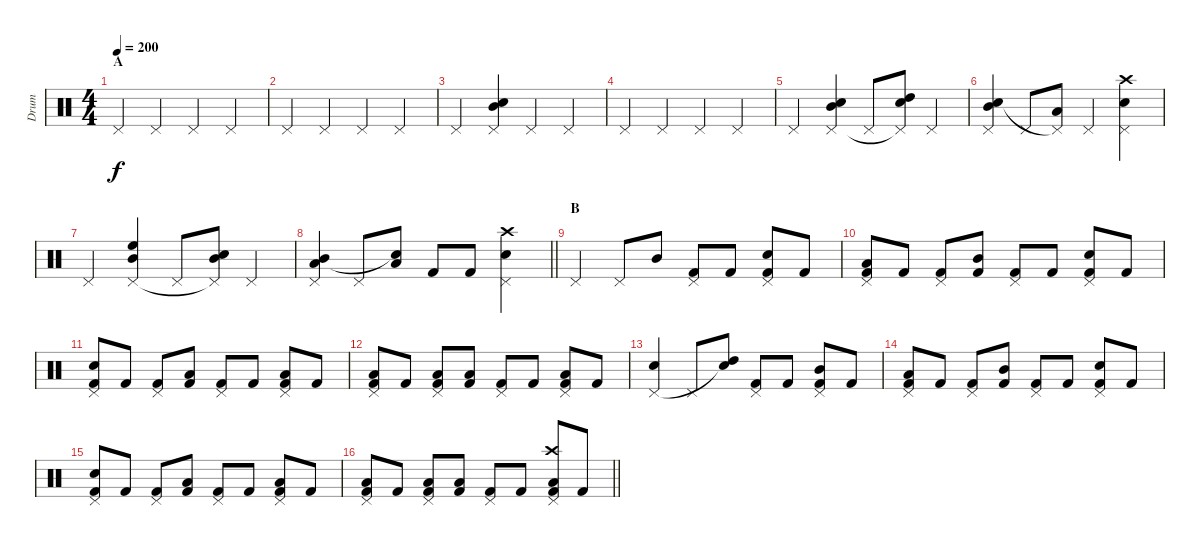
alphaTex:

\track ("Drum" "Drum") {instrument percussion}
\staff {score}
\articulation defaults
\ts (4 4)
\section ("" "A")
\tempo 200
\clef neutral
\ks c "Pedal Hi-Hat (hit)".4{dy f} "Pedal Hi-Hat (hit)".4 "Pedal Hi-Hat (hit)".4 "Pedal Hi-Hat (hit)".4
|
"Pedal Hi-Hat (hit)".4 "Pedal Hi-Hat (hit)".4 "Pedal Hi-Hat (hit)".4 "Pedal Hi-Hat (hit)".4 |
"Pedal Hi-Hat (hit)".4 ("Mid Tom (hit)" "Snare (hit) 2" "Pedal Hi-Hat (hit)").4 "Pedal Hi-Hat (hit)".4 "Pedal Hi-Hat (hit)".4 |
"Pedal Hi-Hat (hit)".4 "Pedal Hi-Hat (hit)".4 "Pedal Hi-Hat (hit)".4 "Pedal Hi-Hat (hit)".4 |
"Pedal Hi-Hat (hit)".4 ("Mid Tom (hit)" "Snare (hit) 2" "Pedal Hi-Hat (hit)").4 "Pedal Hi-Hat (hit)".8 ("High Tom (hit)" "Snare (hit) 2" "Pedal Hi-Hat (hit)"{t}).8 "Pedal Hi-Hat (hit)".4 |
("Mid Tom (hit)" "Snare (hit) 2" "Pedal Hi-Hat (hit)").4 "Pedal Hi-Hat (hit)".8 ("Low Floor Tom (hit)" "Pedal Hi-Hat (hit)"{t}).8 "Pedal Hi-Hat (hit)".4 ("Crash high (hit)" "Snare (hit) 2" "Pedal Hi-Hat (hit)").4 |
"Pedal Hi-Hat (hit)".4 ("High Floor Tom (hit)" "Mid Tom (hit)" "Pedal Hi-Hat (hit)").4 "Pedal Hi-Hat (hit)".8 ("Mid Tom (hit)" "Snare (hit) 2" "Pedal Hi-Hat (hit)"{t}).8 "Pedal Hi-Hat (hit)".4 |
\barLineRight lightlight
("Mid Tom (hit)" "Low Tom (hit)" "Pedal Hi-Hat (hit)").4 "Pedal Hi-Hat (hit)".8 ("Low Tom (hit)" "Snare (hit)"{t}).8 "Kick (hit) 2".8 "Kick (hit) 2".8 ("Crash high (hit)" "Snare (hit) 2" "Pedal Hi-Hat (hit)").4 |
\section ("" "B")
"Pedal Hi-Hat (hit)".4 "Pedal Hi-Hat (hit)".8 "Mid Tom (hit)".8 ("Pedal Hi-Hat (hit)" "Kick (hit) 2").8 "Kick (hit) 2".8 ("Snare (hit) 2" "Pedal Hi-Hat (hit)" "Kick (hit) 2").8 "Kick (hit) 2".8 |
("Low Tom (hit)" "Pedal Hi-Hat (hit)" "Kick (hit) 2").8 "Kick (hit) 2".8 ("Pedal Hi-Hat (hit)" "Kick (hit) 2").8 ("Mid Tom (hit)" "Kick (hit) 2").8 ("Pedal Hi-Hat (hit)" "Kick (hit) 2").8 "Kick (hit) 2".8 ("Snare (hit) 2" "Pedal Hi-Hat (hit)" "Kick (hit) 2").8 "Kick (hit) 2".8 |
("Snare (hit) 2" "Pedal Hi-Hat (hit)" "Kick (hit) 2").8 "Kick (hit) 2".8 ("Pedal Hi-Hat (hit)" "Kick (hit) 2").8 ("Low Tom (hit)" "Kick (hit) 2").8 ("Pedal Hi-Hat (hit)" "Kick (hit) 2").8 "Kick (hit) 2".8 ("Low Tom (hit)" "Pedal Hi-Hat (hit)" "Kick (hit) 2").8 "Kick (hit) 2".8 |
("Low Tom (hit)" "Pedal Hi-Hat (hit)" "Kick (hit) 2").8 "Kick (hit) 2".8 ("Low Tom (hit)" "Pedal Hi-Hat (hit)" "Kick (hit) 2").8 ("Low Tom (hit)" "Kick (hit) 2").8 ("Pedal Hi-Hat (hit)" "Kick (hit) 2").8 "Kick (hit) 2".8 ("Low Tom (hit)" "Pedal Hi-Hat (hit)" "Kick (hit) 2").8 "Kick (hit) 2".8 |
("Snare (hit) 2" "Pedal Hi-Hat (hit)").4 "Pedal Hi-Hat (hit)".8 ("High Tom (hit)" "Snare (hit)"{t}).8 ("Pedal Hi-Hat (hit)" "Kick (hit) 2").8 "Kick (hit) 2".8 ("Mid Tom (hit)" "Pedal Hi-Hat (hit)" "Kick (hit) 2").8 "Kick (hit) 2".8 |
("Low Tom (hit)" "Pedal Hi-Hat (hit)" "Kick (hit) 2").8 "Kick (hit) 2".8 ("Pedal Hi-Hat (hit)" "Kick (hit) 2").8 ("Mid Tom (hit)" "Kick (hit) 2").8 ("Pedal Hi-Hat (hit)" "Kick (hit) 2").8 "Kick (hit) 2".8 ("Snare (hit) 2" "Pedal Hi-Hat (hit)" "Kick (hit) 2").8 "Kick (hit) 2".8 |
("Snare (hit) 2" "Pedal Hi-Hat (hit)" "Kick (hit) 2").8 "Kick (hit) 2".8 ("Pedal Hi-Hat (hit)" "Kick (hit) 2").8 ("Low Tom (hit)" "Kick (hit) 2").8 ("Pedal Hi-Hat (hit)" "Kick (hit) 2").8 "Kick (hit) 2".8 ("Low Tom (hit)" "Pedal Hi-Hat (hit)" "Kick (hit) 2").8 "Kick (hit) 2".8 |
\barLineRight lightlight
("Low Tom (hit)" "Pedal Hi-Hat (hit)" "Kick (hit) 2").8 "Kick (hit) 2".8 ("Low Tom (hit)" "Pedal Hi-Hat (hit)" "Kick (hit) 2").8 ("Low Tom (hit)" "Kick (hit) 2").8 ("Pedal Hi-Hat (hit)" "Kick (hit) 2").8 "Kick (hit) 2".8 ("Crash high (hit)" "Low Tom (hit)" "Pedal Hi-Hat (hit)" "Kick (hit) 2").8 "Kick (hit) 2".8
